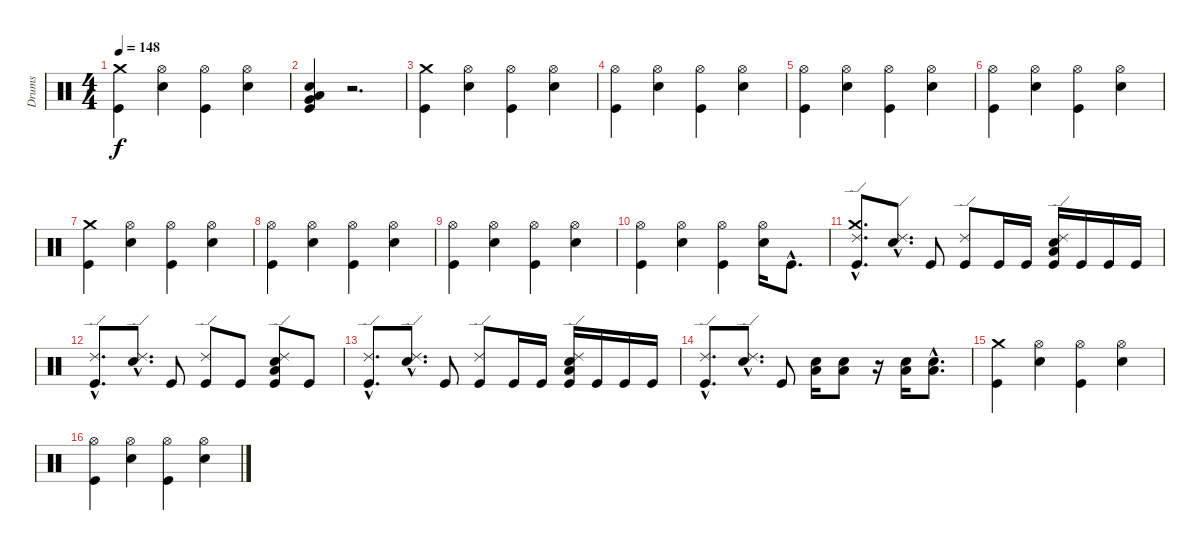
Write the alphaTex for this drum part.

\track ("Drums" "Drums") {instrument percussion}
\staff {score}
\articulation defaults
\ts (4 4)
\tempo 148
\clef neutral
\ks c
("Kick (hit)" "Crash medium (hit)").4{dy f} ("Snare (hit) 2" "Hi-Hat (open)").4 ("Kick (hit)" "Hi-Hat (open)").4 ("Snare (hit) 2" "Hi-Hat (open)").4 |
("Kick (hit)" "Snare (hit) 2" "Low Floor Tom (hit)" "Very Low Tom (hit)").4 r.2{d} |
("Kick (hit)" "Crash medium (hit)").4 ("Snare (hit) 2" "Hi-Hat (open)").4 ("Kick (hit)" "Hi-Hat (open)").4 ("Snare (hit) 2" "Hi-Hat (open)").4 |
("Kick (hit)" "Hi-Hat (open)").4 ("Snare (hit) 2" "Hi-Hat (open)").4 ("Kick (hit)" "Hi-Hat (open)").4 ("Snare (hit) 2" "Hi-Hat (open)").4 |
("Kick (hit)" "Hi-Hat (open)").4 ("Snare (hit) 2" "Hi-Hat (open)").4 ("Kick (hit)" "Hi-Hat (open)").4 ("Snare (hit) 2" "Hi-Hat (open)").4 |
("Kick (hit)" "Hi-Hat (open)").4 ("Snare (hit) 2" "Hi-Hat (open)").4 ("Kick (hit)" "Hi-Hat (open)").4 ("Snare (hit) 2" "Hi-Hat (open)").4 |
("Kick (hit)" "Crash medium (hit)").4 ("Snare (hit) 2" "Hi-Hat (open)").4 ("Kick (hit)" "Hi-Hat (open)").4 ("Snare (hit) 2" "Hi-Hat (open)").4 |
("Kick (hit)" "Hi-Hat (open)").4 ("Snare (hit) 2" "Hi-Hat (open)").4 ("Kick (hit)" "Hi-Hat (open)").4 ("Snare (hit) 2" "Hi-Hat (open)").4 |
("Kick (hit)" "Hi-Hat (open)").4 ("Snare (hit) 2" "Hi-Hat (open)").4 ("Kick (hit)" "Hi-Hat (open)").4 ("Snare (hit) 2" "Hi-Hat (open)").4 |
("Kick (hit)" "Hi-Hat (open)").4 ("Snare (hit) 2" "Hi-Hat (open)").4 ("Kick (hit)" "Hi-Hat (open)").4 ("Snare (hit) 2" "Hi-Hat (open)").16 "Kick (hit)"{hac}.8{d} |
("Kick (hit)"{hac} "Crash medium (hit)"{hac} "Ride (edge) 2"{hac}).8{d} ("Snare (hit) 2"{hac} "Ride (edge) 2"{hac}).8{d} "Kick (hit)".8 ("Kick (hit)" "Ride (edge) 2").8 "Kick (hit)".16 "Kick (hit)".16 ("Kick (hit)" "Snare (hit) 2" "Low Floor Tom (hit)" "Ride (edge) 2").16 "Kick (hit)".16 "Kick (hit)".16 "Kick (hit)".16 |
("Kick (hit)"{hac} "Ride (edge) 2"{hac}).8{d} ("Snare (hit) 2"{hac} "Ride (edge) 2"{hac}).8{d} "Kick (hit)".8 ("Kick (hit)" "Ride (edge) 2").8 "Kick (hit)".8 ("Kick (hit)" "Snare (hit) 2" "Low Floor Tom (hit)" "Ride (edge) 2").8 "Kick (hit)".8 |
("Kick (hit)"{hac} "Ride (edge) 2"{hac}).8{d} ("Snare (hit) 2"{hac} "Ride (edge) 2"{hac}).8{d} "Kick (hit)".8 ("Kick (hit)" "Ride (edge) 2").8 "Kick (hit)".16 "Kick (hit)".16 ("Kick (hit)" "Snare (hit) 2" "Low Floor Tom (hit)" "Ride (edge) 2").16 "Kick (hit)".16 "Kick (hit)".16 "Kick (hit)".16 |
("Kick (hit)"{hac} "Ride (edge) 2"{hac}).8{d} ("Snare (hit) 2"{hac} "Ride (edge) 2"{hac}).8{d} "Kick (hit)".8 ("Snare (hit) 2" "Low Floor Tom (hit)").16 ("Snare (hit) 2" "Low Floor Tom (hit)").8 r.16 ("Snare (hit) 2" "Low Floor Tom (hit)").16 ("Snare (hit) 2"{hac} "Low Floor Tom (hit)"{hac}).8{d} |
("Kick (hit)" "Crash medium (hit)").4 ("Snare (hit) 2" "Hi-Hat (open)").4 ("Kick (hit)" "Hi-Hat (open)").4 ("Snare (hit) 2" "Hi-Hat (open)").4 |
("Kick (hit)" "Hi-Hat (open)").4 ("Snare (hit) 2" "Hi-Hat (open)").4 ("Kick (hit)" "Hi-Hat (open)").4 ("Snare (hit) 2" "Hi-Hat (open)").4
